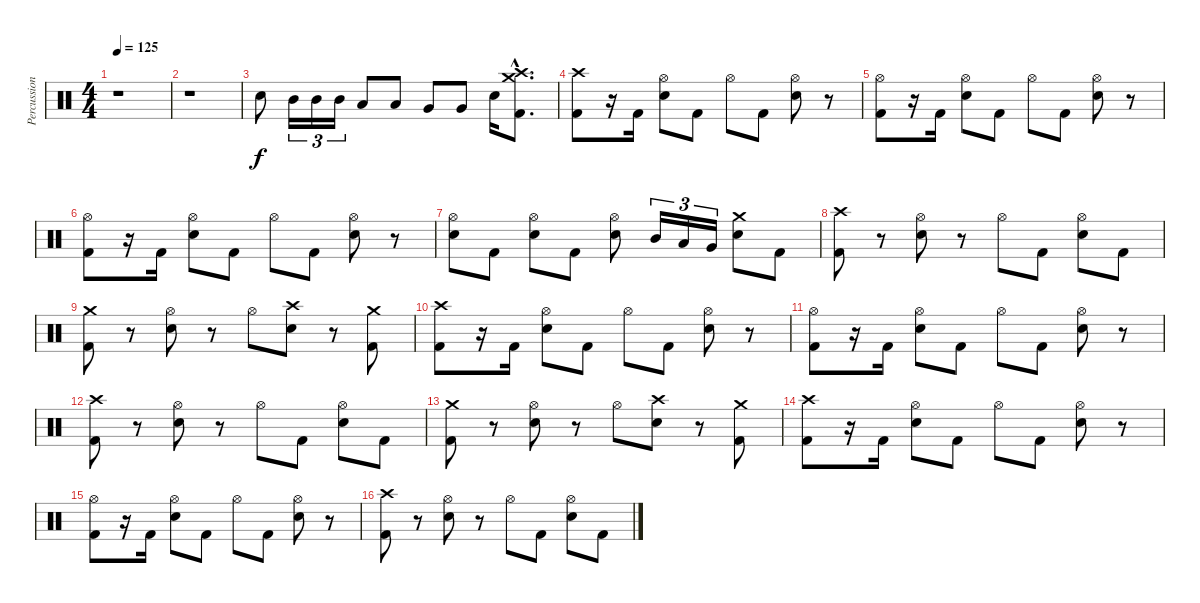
\track ("Percussion" "Percussion") {instrument percussion}
\staff {score}
\articulation defaults
\ts (4 4)
\tempo 125
\clef neutral
\ks c
r.1{dy f} |
r.1 |
"Snare (hit) 2".8 "Mid Tom (hit)".16{tu (3 2)} "Mid Tom (hit)".16{tu (3 2)} "Mid Tom (hit)".16{tu (3 2)} "Low Tom (hit)".8 "Low Tom (hit)".8 "Very Low Tom (hit)".8 "Very Low Tom (hit)".8 "Snare (hit) 2".16 ("Crash high (hit)"{hac} "Crash medium (hit)"{hac} "Kick (hit) 2"{hac}).8{d} |
("Crash high (hit)" "Kick (hit) 2").8 r.16 "Kick (hit) 2".16 ("Hi-Hat (open)" "Snare (hit) 2").8 "Kick (hit) 2".8 "Hi-Hat (open)".8 "Kick (hit) 2".8 ("Hi-Hat (open)" "Snare (hit) 2").8 r.8 |
("Hi-Hat (open)" "Kick (hit) 2").8 r.16 "Kick (hit) 2".16 ("Hi-Hat (open)" "Snare (hit) 2").8 "Kick (hit) 2".8 "Hi-Hat (open)".8 "Kick (hit) 2".8 ("Hi-Hat (open)" "Snare (hit) 2").8 r.8 |
("Hi-Hat (open)" "Kick (hit) 2").8 r.16 "Kick (hit) 2".16 ("Hi-Hat (open)" "Snare (hit) 2").8 "Kick (hit) 2".8 "Hi-Hat (open)".8 "Kick (hit) 2".8 ("Hi-Hat (open)" "Snare (hit) 2").8 r.8 |
("Hi-Hat (open)" "Snare (hit) 2").8 "Kick (hit) 2".8 ("Hi-Hat (open)" "Snare (hit) 2").8 "Kick (hit) 2".8 ("Hi-Hat (open)" "Snare (hit) 2").8 "Mid Tom (hit)".16{tu (3 2)} "Low Tom (hit)".16{tu (3 2)} "Very Low Tom (hit)".16{tu (3 2)} ("Crash medium (hit)" "Snare (hit) 2").8 "Kick (hit) 2".8 |
("Crash high (hit)" "Kick (hit) 2").8 r.8 ("Hi-Hat (open)" "Snare (hit) 2").8 r.8 "Hi-Hat (open)".8 "Kick (hit) 2".8 ("Hi-Hat (open)" "Snare (hit) 2").8 "Kick (hit) 2".8 |
("Crash medium (hit)" "Kick (hit) 2").8 r.8 ("Hi-Hat (open)" "Snare (hit) 2").8 r.8 "Hi-Hat (open)".8 ("Crash high (hit)" "Snare (hit) 2").8 r.8 ("Crash medium (hit)" "Kick (hit) 2").8 |
("Crash high (hit)" "Kick (hit) 2").8 r.16 "Kick (hit) 2".16 ("Hi-Hat (open)" "Snare (hit) 2").8 "Kick (hit) 2".8 "Hi-Hat (open)".8 "Kick (hit) 2".8 ("Hi-Hat (open)" "Snare (hit) 2").8 r.8 |
("Hi-Hat (open)" "Kick (hit) 2").8 r.16 "Kick (hit) 2".16 ("Hi-Hat (open)" "Snare (hit) 2").8 "Kick (hit) 2".8 "Hi-Hat (open)".8 "Kick (hit) 2".8 ("Hi-Hat (open)" "Snare (hit) 2").8 r.8 |
("Crash high (hit)" "Kick (hit) 2").8 r.8 ("Hi-Hat (open)" "Snare (hit) 2").8 r.8 "Hi-Hat (open)".8 "Kick (hit) 2".8 ("Hi-Hat (open)" "Snare (hit) 2").8 "Kick (hit) 2".8 |
("Crash medium (hit)" "Kick (hit) 2").8 r.8 ("Hi-Hat (open)" "Snare (hit) 2").8 r.8 "Hi-Hat (open)".8 ("Crash high (hit)" "Snare (hit) 2").8 r.8 ("Crash medium (hit)" "Kick (hit) 2").8 |
("Crash high (hit)" "Kick (hit) 2").8 r.16 "Kick (hit) 2".16 ("Hi-Hat (open)" "Snare (hit) 2").8 "Kick (hit) 2".8 "Hi-Hat (open)".8 "Kick (hit) 2".8 ("Hi-Hat (open)" "Snare (hit) 2").8 r.8 |
("Hi-Hat (open)" "Kick (hit) 2").8 r.16 "Kick (hit) 2".16 ("Hi-Hat (open)" "Snare (hit) 2").8 "Kick (hit) 2".8 "Hi-Hat (open)".8 "Kick (hit) 2".8 ("Hi-Hat (open)" "Snare (hit) 2").8 r.8 |
("Crash high (hit)" "Kick (hit) 2").8 r.8 ("Hi-Hat (open)" "Snare (hit) 2").8 r.8 "Hi-Hat (open)".8 "Kick (hit) 2".8 ("Hi-Hat (open)" "Snare (hit) 2").8 "Kick (hit) 2".8
